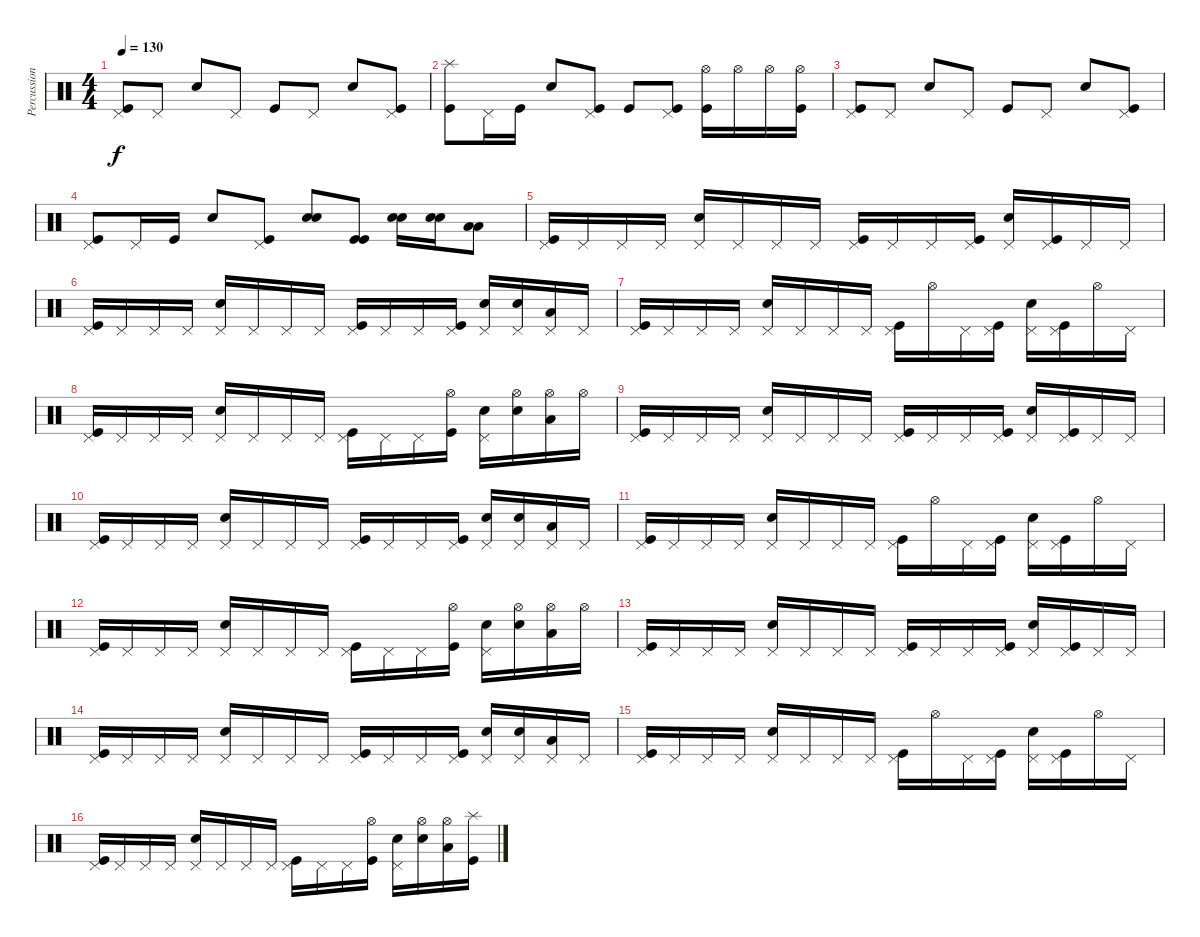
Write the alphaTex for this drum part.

\track ("Percussion" "Percussion") {instrument percussion}
\staff {score}
\articulation defaults
\ts (4 4)
\tempo 130
\clef neutral
\ks c
("Pedal Hi-Hat (hit)" "Kick (hit)").8{dy f} "Pedal Hi-Hat (hit)".8 "Electric Snare (hit)".8 "Pedal Hi-Hat (hit)".8 "Kick (hit)".8 "Pedal Hi-Hat (hit)".8 "Electric Snare (hit)".8 ("Pedal Hi-Hat (hit)" "Kick (hit)").8 |
("Splash (hit)" "Kick (hit)").8 "Pedal Hi-Hat (hit)".16 "Kick (hit)".16 "Electric Snare (hit)".8 ("Pedal Hi-Hat (hit)" "Kick (hit)").8 "Kick (hit)".8 ("Pedal Hi-Hat (hit)" "Kick (hit)").8 ("Hi-Hat (open)" "Kick (hit)").16 "Hi-Hat (open)".16 "Hi-Hat (open)".16 ("Hi-Hat (open)" "Kick (hit)").16 |
("Pedal Hi-Hat (hit)" "Kick (hit)").8 "Pedal Hi-Hat (hit)".8 "Electric Snare (hit)".8 "Pedal Hi-Hat (hit)".8 "Kick (hit)".8 "Pedal Hi-Hat (hit)".8 "Electric Snare (hit)".8 ("Pedal Hi-Hat (hit)" "Kick (hit)").8 |
("Pedal Hi-Hat (hit)" "Kick (hit)").8 "Pedal Hi-Hat (hit)".16 "Kick (hit)".16 "Electric Snare (hit)".8 ("Pedal Hi-Hat (hit)" "Kick (hit)").8 ("Electric Snare (hit)" "Electric Snare (hit)").8 ("Kick (hit)" "Kick (hit)").8 ("Electric Snare (hit)" "Electric Snare (hit)").16 ("Electric Snare (hit)" "Electric Snare (hit)").16 ("Low Floor Tom (hit)" "Low Floor Tom (hit)").8 |
("Pedal Hi-Hat (hit)" "Kick (hit)").16 "Pedal Hi-Hat (hit)".16 "Pedal Hi-Hat (hit)".16 "Pedal Hi-Hat (hit)".16 ("Pedal Hi-Hat (hit)" "Electric Snare (hit)").16 "Pedal Hi-Hat (hit)".16 "Pedal Hi-Hat (hit)".16 "Pedal Hi-Hat (hit)".16 ("Pedal Hi-Hat (hit)" "Kick (hit)").16 "Pedal Hi-Hat (hit)".16 "Pedal Hi-Hat (hit)".16 ("Pedal Hi-Hat (hit)" "Kick (hit)").16 ("Pedal Hi-Hat (hit)" "Electric Snare (hit)").16 ("Pedal Hi-Hat (hit)" "Kick (hit)").16 "Pedal Hi-Hat (hit)".16 "Pedal Hi-Hat (hit)".16 |
("Pedal Hi-Hat (hit)" "Kick (hit)").16 "Pedal Hi-Hat (hit)".16 "Pedal Hi-Hat (hit)".16 "Pedal Hi-Hat (hit)".16 ("Pedal Hi-Hat (hit)" "Electric Snare (hit)").16 "Pedal Hi-Hat (hit)".16 "Pedal Hi-Hat (hit)".16 "Pedal Hi-Hat (hit)".16 ("Pedal Hi-Hat (hit)" "Kick (hit)").16 "Pedal Hi-Hat (hit)".16 "Pedal Hi-Hat (hit)".16 ("Pedal Hi-Hat (hit)" "Kick (hit)").16 ("Pedal Hi-Hat (hit)" "Electric Snare (hit)").16 ("Pedal Hi-Hat (hit)" "Electric Snare (hit)").16 ("Pedal Hi-Hat (hit)" "Low Tom (hit)").16 "Pedal Hi-Hat (hit)".16 |
("Pedal Hi-Hat (hit)" "Kick (hit)").16 "Pedal Hi-Hat (hit)".16 "Pedal Hi-Hat (hit)".16 "Pedal Hi-Hat (hit)".16 ("Pedal Hi-Hat (hit)" "Electric Snare (hit)").16 "Pedal Hi-Hat (hit)".16 "Pedal Hi-Hat (hit)".16 "Pedal Hi-Hat (hit)".16 ("Pedal Hi-Hat (hit)" "Kick (hit)").16 "Hi-Hat (open)".16 "Pedal Hi-Hat (hit)".16 ("Pedal Hi-Hat (hit)" "Kick (hit)").16 ("Pedal Hi-Hat (hit)" "Electric Snare (hit)").16 ("Pedal Hi-Hat (hit)" "Kick (hit)").16 "Hi-Hat (open)".16 "Pedal Hi-Hat (hit)".16 |
("Pedal Hi-Hat (hit)" "Kick (hit)").16 "Pedal Hi-Hat (hit)".16 "Pedal Hi-Hat (hit)".16 "Pedal Hi-Hat (hit)".16 ("Pedal Hi-Hat (hit)" "Electric Snare (hit)").16 "Pedal Hi-Hat (hit)".16 "Pedal Hi-Hat (hit)".16 "Pedal Hi-Hat (hit)".16 ("Pedal Hi-Hat (hit)" "Kick (hit)").16 "Pedal Hi-Hat (hit)".16 "Pedal Hi-Hat (hit)".16 ("Hi-Hat (open)" "Kick (hit)").16 ("Pedal Hi-Hat (hit)" "Electric Snare (hit)").16 ("Hi-Hat (open)" "Electric Snare (hit)").16 ("Hi-Hat (open)" "Low Tom (hit)").16 "Hi-Hat (open)".16 |
("Pedal Hi-Hat (hit)" "Kick (hit)").16 "Pedal Hi-Hat (hit)".16 "Pedal Hi-Hat (hit)".16 "Pedal Hi-Hat (hit)".16 ("Pedal Hi-Hat (hit)" "Electric Snare (hit)").16 "Pedal Hi-Hat (hit)".16 "Pedal Hi-Hat (hit)".16 "Pedal Hi-Hat (hit)".16 ("Pedal Hi-Hat (hit)" "Kick (hit)").16 "Pedal Hi-Hat (hit)".16 "Pedal Hi-Hat (hit)".16 ("Pedal Hi-Hat (hit)" "Kick (hit)").16 ("Pedal Hi-Hat (hit)" "Electric Snare (hit)").16 ("Pedal Hi-Hat (hit)" "Kick (hit)").16 "Pedal Hi-Hat (hit)".16 "Pedal Hi-Hat (hit)".16 |
("Pedal Hi-Hat (hit)" "Kick (hit)").16 "Pedal Hi-Hat (hit)".16 "Pedal Hi-Hat (hit)".16 "Pedal Hi-Hat (hit)".16 ("Pedal Hi-Hat (hit)" "Electric Snare (hit)").16 "Pedal Hi-Hat (hit)".16 "Pedal Hi-Hat (hit)".16 "Pedal Hi-Hat (hit)".16 ("Pedal Hi-Hat (hit)" "Kick (hit)").16 "Pedal Hi-Hat (hit)".16 "Pedal Hi-Hat (hit)".16 ("Pedal Hi-Hat (hit)" "Kick (hit)").16 ("Pedal Hi-Hat (hit)" "Electric Snare (hit)").16 ("Pedal Hi-Hat (hit)" "Electric Snare (hit)").16 ("Pedal Hi-Hat (hit)" "Low Tom (hit)").16 "Pedal Hi-Hat (hit)".16 |
("Pedal Hi-Hat (hit)" "Kick (hit)").16 "Pedal Hi-Hat (hit)".16 "Pedal Hi-Hat (hit)".16 "Pedal Hi-Hat (hit)".16 ("Pedal Hi-Hat (hit)" "Electric Snare (hit)").16 "Pedal Hi-Hat (hit)".16 "Pedal Hi-Hat (hit)".16 "Pedal Hi-Hat (hit)".16 ("Pedal Hi-Hat (hit)" "Kick (hit)").16 "Hi-Hat (open)".16 "Pedal Hi-Hat (hit)".16 ("Pedal Hi-Hat (hit)" "Kick (hit)").16 ("Pedal Hi-Hat (hit)" "Electric Snare (hit)").16 ("Pedal Hi-Hat (hit)" "Kick (hit)").16 "Hi-Hat (open)".16 "Pedal Hi-Hat (hit)".16 |
("Pedal Hi-Hat (hit)" "Kick (hit)").16 "Pedal Hi-Hat (hit)".16 "Pedal Hi-Hat (hit)".16 "Pedal Hi-Hat (hit)".16 ("Pedal Hi-Hat (hit)" "Electric Snare (hit)").16 "Pedal Hi-Hat (hit)".16 "Pedal Hi-Hat (hit)".16 "Pedal Hi-Hat (hit)".16 ("Pedal Hi-Hat (hit)" "Kick (hit)").16 "Pedal Hi-Hat (hit)".16 "Pedal Hi-Hat (hit)".16 ("Hi-Hat (open)" "Kick (hit)").16 ("Pedal Hi-Hat (hit)" "Electric Snare (hit)").16 ("Hi-Hat (open)" "Electric Snare (hit)").16 ("Hi-Hat (open)" "Low Tom (hit)").16 "Hi-Hat (open)".16 |
("Pedal Hi-Hat (hit)" "Kick (hit)").16 "Pedal Hi-Hat (hit)".16 "Pedal Hi-Hat (hit)".16 "Pedal Hi-Hat (hit)".16 ("Pedal Hi-Hat (hit)" "Electric Snare (hit)").16 "Pedal Hi-Hat (hit)".16 "Pedal Hi-Hat (hit)".16 "Pedal Hi-Hat (hit)".16 ("Pedal Hi-Hat (hit)" "Kick (hit)").16 "Pedal Hi-Hat (hit)".16 "Pedal Hi-Hat (hit)".16 ("Pedal Hi-Hat (hit)" "Kick (hit)").16 ("Pedal Hi-Hat (hit)" "Electric Snare (hit)").16 ("Pedal Hi-Hat (hit)" "Kick (hit)").16 "Pedal Hi-Hat (hit)".16 "Pedal Hi-Hat (hit)".16 |
("Pedal Hi-Hat (hit)" "Kick (hit)").16 "Pedal Hi-Hat (hit)".16 "Pedal Hi-Hat (hit)".16 "Pedal Hi-Hat (hit)".16 ("Pedal Hi-Hat (hit)" "Electric Snare (hit)").16 "Pedal Hi-Hat (hit)".16 "Pedal Hi-Hat (hit)".16 "Pedal Hi-Hat (hit)".16 ("Pedal Hi-Hat (hit)" "Kick (hit)").16 "Pedal Hi-Hat (hit)".16 "Pedal Hi-Hat (hit)".16 ("Pedal Hi-Hat (hit)" "Kick (hit)").16 ("Pedal Hi-Hat (hit)" "Electric Snare (hit)").16 ("Pedal Hi-Hat (hit)" "Electric Snare (hit)").16 ("Pedal Hi-Hat (hit)" "Low Tom (hit)").16 "Pedal Hi-Hat (hit)".16 |
("Pedal Hi-Hat (hit)" "Kick (hit)").16 "Pedal Hi-Hat (hit)".16 "Pedal Hi-Hat (hit)".16 "Pedal Hi-Hat (hit)".16 ("Pedal Hi-Hat (hit)" "Electric Snare (hit)").16 "Pedal Hi-Hat (hit)".16 "Pedal Hi-Hat (hit)".16 "Pedal Hi-Hat (hit)".16 ("Pedal Hi-Hat (hit)" "Kick (hit)").16 "Hi-Hat (open)".16 "Pedal Hi-Hat (hit)".16 ("Pedal Hi-Hat (hit)" "Kick (hit)").16 ("Pedal Hi-Hat (hit)" "Electric Snare (hit)").16 ("Pedal Hi-Hat (hit)" "Kick (hit)").16 "Hi-Hat (open)".16 "Pedal Hi-Hat (hit)".16 |
("Pedal Hi-Hat (hit)" "Kick (hit)").16 "Pedal Hi-Hat (hit)".16 "Pedal Hi-Hat (hit)".16 "Pedal Hi-Hat (hit)".16 ("Pedal Hi-Hat (hit)" "Electric Snare (hit)").16 "Pedal Hi-Hat (hit)".16 "Pedal Hi-Hat (hit)".16 "Pedal Hi-Hat (hit)".16 ("Pedal Hi-Hat (hit)" "Kick (hit)").16 "Pedal Hi-Hat (hit)".16 "Pedal Hi-Hat (hit)".16 ("Hi-Hat (open)" "Kick (hit)").16 ("Pedal Hi-Hat (hit)" "Electric Snare (hit)").16 ("Hi-Hat (open)" "Electric Snare (hit)").16 ("Hi-Hat (open)" "Low Tom (hit)").16 ("Splash (hit)" "Kick (hit)").16
